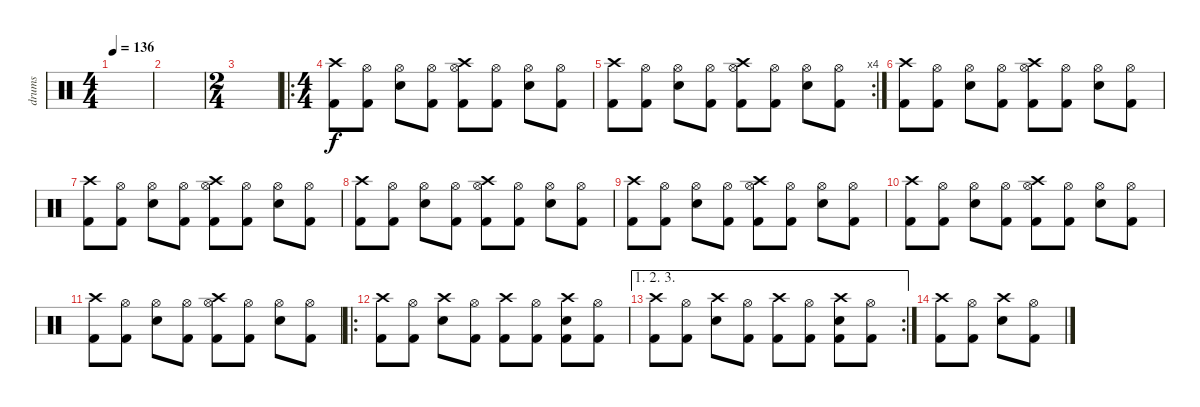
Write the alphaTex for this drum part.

\track ("drums" "drums") {instrument percussion}
\staff {score}
\articulation defaults
\ts (4 4)
\tempo 136
\clef neutral
\ks c
|
|
\ts (2 4)
|
\ro
\ts (4 4)
("Crash high (hit)" "Kick (hit) 2").8 ("Hi-Hat (open)" "Kick (hit) 2").8 ("Hi-Hat (open)" "Electric Snare (hit)").8 ("Hi-Hat (open)" "Kick (hit) 2").8 ("Crash high (hit)" "Hi-Hat (open)" "Kick (hit) 2").8 ("Hi-Hat (open)" "Kick (hit) 2").8 ("Hi-Hat (open)" "Electric Snare (hit)").8 ("Hi-Hat (open)" "Kick (hit) 2").8 |
\rc 4
("Crash high (hit)" "Kick (hit) 2").8 ("Hi-Hat (open)" "Kick (hit) 2").8 ("Hi-Hat (open)" "Electric Snare (hit)").8 ("Hi-Hat (open)" "Kick (hit) 2").8 ("Crash high (hit)" "Hi-Hat (open)" "Kick (hit) 2").8 ("Hi-Hat (open)" "Kick (hit) 2").8 ("Hi-Hat (open)" "Electric Snare (hit)").8 ("Hi-Hat (open)" "Kick (hit) 2").8 |
("Crash high (hit)" "Kick (hit) 2").8 ("Hi-Hat (open)" "Kick (hit) 2").8 ("Hi-Hat (open)" "Electric Snare (hit)").8 ("Hi-Hat (open)" "Kick (hit) 2").8 ("Crash high (hit)" "Hi-Hat (open)" "Kick (hit) 2").8 ("Hi-Hat (open)" "Kick (hit) 2").8 ("Hi-Hat (open)" "Electric Snare (hit)").8 ("Hi-Hat (open)" "Kick (hit) 2").8 |
("Crash high (hit)" "Kick (hit) 2").8 ("Hi-Hat (open)" "Kick (hit) 2").8 ("Hi-Hat (open)" "Electric Snare (hit)").8 ("Hi-Hat (open)" "Kick (hit) 2").8 ("Crash high (hit)" "Hi-Hat (open)" "Kick (hit) 2").8 ("Hi-Hat (open)" "Kick (hit) 2").8 ("Hi-Hat (open)" "Electric Snare (hit)").8 ("Hi-Hat (open)" "Kick (hit) 2").8 |
("Crash high (hit)" "Kick (hit) 2").8 ("Hi-Hat (open)" "Kick (hit) 2").8 ("Hi-Hat (open)" "Electric Snare (hit)").8 ("Hi-Hat (open)" "Kick (hit) 2").8 ("Crash high (hit)" "Hi-Hat (open)" "Kick (hit) 2").8 ("Hi-Hat (open)" "Kick (hit) 2").8 ("Hi-Hat (open)" "Electric Snare (hit)").8 ("Hi-Hat (open)" "Kick (hit) 2").8 |
("Crash high (hit)" "Kick (hit) 2").8 ("Hi-Hat (open)" "Kick (hit) 2").8 ("Hi-Hat (open)" "Electric Snare (hit)").8 ("Hi-Hat (open)" "Kick (hit) 2").8 ("Crash high (hit)" "Hi-Hat (open)" "Kick (hit) 2").8 ("Hi-Hat (open)" "Kick (hit) 2").8 ("Hi-Hat (open)" "Electric Snare (hit)").8 ("Hi-Hat (open)" "Kick (hit) 2").8 |
("Crash high (hit)" "Kick (hit) 2").8 ("Hi-Hat (open)" "Kick (hit) 2").8 ("Hi-Hat (open)" "Electric Snare (hit)").8 ("Hi-Hat (open)" "Kick (hit) 2").8 ("Crash high (hit)" "Hi-Hat (open)" "Kick (hit) 2").8 ("Hi-Hat (open)" "Kick (hit) 2").8 ("Hi-Hat (open)" "Electric Snare (hit)").8 ("Hi-Hat (open)" "Kick (hit) 2").8 |
("Crash high (hit)" "Kick (hit) 2").8 ("Hi-Hat (open)" "Kick (hit) 2").8 ("Hi-Hat (open)" "Electric Snare (hit)").8 ("Hi-Hat (open)" "Kick (hit) 2").8 ("Crash high (hit)" "Hi-Hat (open)" "Kick (hit) 2").8 ("Hi-Hat (open)" "Kick (hit) 2").8 ("Hi-Hat (open)" "Electric Snare (hit)").8 ("Hi-Hat (open)" "Kick (hit) 2").8 |
\ro
("Crash high (hit)" "Kick (hit) 2").8{dy f} ("Hi-Hat (open)" "Kick (hit) 2").8 ("Crash high (hit)" "Electric Snare (hit)").8 ("Hi-Hat (open)" "Kick (hit) 2").8 ("Crash high (hit)" "Kick (hit) 2").8 ("Hi-Hat (open)" "Kick (hit) 2").8 ("Crash high (hit)" "Electric Snare (hit)" "Kick (hit) 2").8 ("Hi-Hat (open)" "Kick (hit) 2").8 |
\ae (1 2 3)
\rc 2
("Crash high (hit)" "Kick (hit) 2").8 ("Hi-Hat (open)" "Kick (hit) 2").8 ("Crash high (hit)" "Electric Snare (hit)").8 ("Hi-Hat (open)" "Kick (hit) 2").8 ("Crash high (hit)" "Kick (hit) 2").8 ("Hi-Hat (open)" "Kick (hit) 2").8 ("Crash high (hit)" "Electric Snare (hit)" "Kick (hit) 2").8 ("Hi-Hat (open)" "Kick (hit) 2").8 |
("Crash high (hit)" "Kick (hit) 2").8 ("Hi-Hat (open)" "Kick (hit) 2").8 ("Crash high (hit)" "Electric Snare (hit)").8 ("Hi-Hat (open)" "Kick (hit) 2").8
